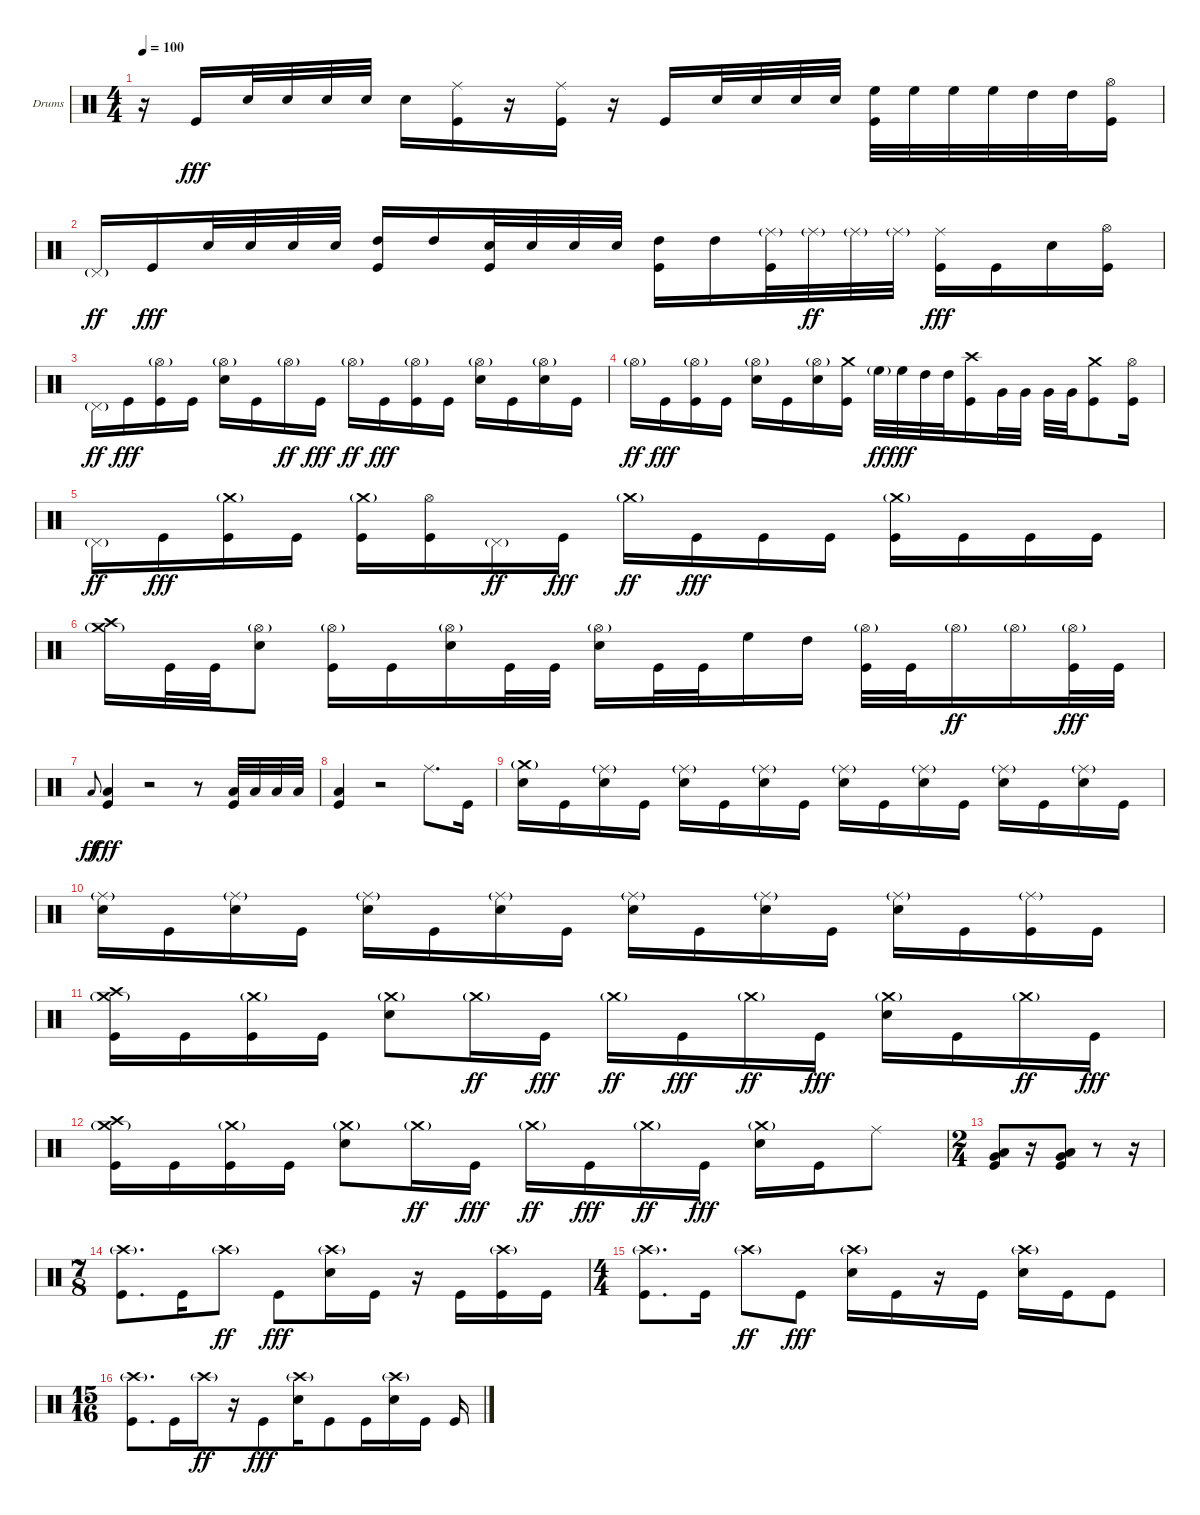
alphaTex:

\bracketExtendMode groupsimilarinstruments
\firstSystemTrackNameOrientation horizontal
\otherSystemsTrackNameOrientation horizontal
\track ("Drumkit" "Drums") {instrument percussion}
\staff {score}
\articulation defaults
\ts (4 4)
\tempo 100
\clef neutral
\ks c
r.16{dy fff} "Kick (hit)".16 "Snare (hit) 2".32 "Snare (hit) 2".32 "Snare (hit) 2".32 "Snare (hit) 2".32 "Snare (hit) 2".16 ("Ride (middle)" "Kick (hit)").16 r.16 ("Ride (middle)" "Kick (hit)").16 r.16 "Kick (hit)".16 "Snare (hit) 2".32 "Snare (hit) 2".32 "Snare (hit) 2".32 "Snare (hit) 2".32 ("High Floor Tom (hit)" "Kick (hit)").32 "High Floor Tom (hit)".32 "High Floor Tom (hit)".32 "High Floor Tom (hit)".32 "High Tom (hit)".32 "High Tom (hit)".32 ("Hi-Hat (open)" "Kick (hit)").16 |
"Pedal Hi-Hat (hit)"{g}.16{dy ff} "Kick (hit)".16{dy fff} "Snare (hit) 2".32 "Snare (hit) 2".32 "Snare (hit) 2".32 "Snare (hit) 2".32 ("High Tom (hit)" "Kick (hit)").16 "High Tom (hit)".16 ("Snare (hit) 2" "Kick (hit)").32 "Snare (hit) 2".32 "Snare (hit) 2".32 "Snare (hit) 2".32 ("High Tom (hit)" "Kick (hit)").16 "High Tom (hit)".16 ("Ride (middle)"{g} "Kick (hit)").32 "Ride (middle)"{g}.32{dy ff} "Ride (middle)"{g}.32 "Ride (middle)"{g}.32 ("Ride (middle)" "Kick (hit)").16{dy fff} "Kick (hit)".16 "Snare (hit) 2".16 ("Hi-Hat (open)" "Kick (hit)").16 |
"Pedal Hi-Hat (hit)"{g}.16{dy ff} "Kick (hit)".16{dy fff} ("Hi-Hat (open)"{g} "Kick (hit)").16 "Kick (hit)".16 ("Hi-Hat (open)"{g} "Snare (hit) 2").16 "Kick (hit)".16 "Hi-Hat (open)"{g}.16{dy ff} "Kick (hit)".16{dy fff} "Hi-Hat (open)"{g}.16{dy ff} "Kick (hit)".16{dy fff} ("Hi-Hat (open)"{g} "Kick (hit)").16 "Kick (hit)".16 ("Hi-Hat (open)"{g} "Snare (hit) 2").16 "Kick (hit)".16 ("Hi-Hat (open)"{g} "Snare (hit) 2").16 "Kick (hit)".16 |
"Hi-Hat (open)"{g}.16{dy ff} "Kick (hit)".16{dy fff} ("Hi-Hat (open)"{g} "Kick (hit)").16 "Kick (hit)".16 ("Hi-Hat (open)"{g} "Snare (hit) 2").16 "Kick (hit)".16 ("Hi-Hat (open)"{g} "Snare (hit) 2").16 ("Crash medium (hit)" "Kick (hit)").16 "High Floor Tom (hit)"{g}.32{dy ff} "High Floor Tom (hit)".32{dy fff} "High Tom (hit)".32 "High Tom (hit)".32 ("Crash high (hit)" "Kick (hit)").16 "Very Low Tom (hit)".32 "Very Low Tom (hit)".32 "Very Low Tom (hit)".32 "Very Low Tom (hit)".32 ("Crash medium (hit)" "Kick (hit)").8 ("Hi-Hat (open)" "Kick (hit)").16 |
"Pedal Hi-Hat (hit)"{g}.16{dy ff} "Kick (hit)".16{dy fff} ("Crash medium (hit)"{g} "Kick (hit)").16 "Kick (hit)".16 ("Crash medium (hit)"{g} "Kick (hit)").16 ("Hi-Hat (open)" "Kick (hit)").16 "Pedal Hi-Hat (hit)"{g}.16{dy ff} "Kick (hit)".16{dy fff} "Crash medium (hit)"{g}.16{dy ff} "Kick (hit)".16{dy fff} "Kick (hit)".16 "Kick (hit)".16 ("Crash medium (hit)"{g} "Kick (hit)").16 "Kick (hit)".16 "Kick (hit)".16 "Kick (hit)".16 |
("Crash medium (hit)"{g} "Crash high (hit)").16 "Kick (hit)".32 "Kick (hit)".32 ("Hi-Hat (open)"{g} "Snare (hit) 2").8 ("Hi-Hat (open)"{g} "Kick (hit)").16 "Kick (hit)".16 ("Hi-Hat (open)"{g} "Snare (hit) 2").16 "Kick (hit)".32 "Kick (hit)".32 ("Hi-Hat (open)"{g} "Snare (hit) 2").16 "Kick (hit)".32 "Kick (hit)".32 "High Floor Tom (hit)".16 "High Tom (hit)".16 ("Hi-Hat (open)"{g} "Kick (hit)").32 "Kick (hit)".32 "Hi-Hat (open)"{g}.16{dy ff} "Hi-Hat (open)"{g}.16 ("Hi-Hat (open)"{g} "Kick (hit)").32{dy fff} "Kick (hit)".32 |
"Low Tom (hit)".8{gr onbeat dy ff} ("Low Tom (hit)" "Kick (hit)").4{dy fff} r.2 r.8 ("Low Tom (hit)" "Kick (hit)").32 "Low Tom (hit)".32 "Low Tom (hit)".32 "Low Tom (hit)".32 |
("Low Tom (hit)" "Kick (hit)").4 r.2 "Ride (middle)".8{d} "Kick (hit)".16 |
("Crash medium (hit)"{g} "Snare (hit) 2").16 "Kick (hit)".16 ("Ride (middle)"{g} "Snare (hit) 2").16 "Kick (hit)".16 ("Ride (middle)"{g} "Snare (hit) 2").16 "Kick (hit)".16 ("Ride (middle)"{g} "Snare (hit) 2").16 "Kick (hit)".16 ("Ride (middle)"{g} "Snare (hit) 2").16 "Kick (hit)".16 ("Ride (middle)"{g} "Snare (hit) 2").16 "Kick (hit)".16 ("Ride (middle)"{g} "Snare (hit) 2").16 "Kick (hit)".16 ("Ride (middle)"{g} "Snare (hit) 2").16 "Kick (hit)".16 |
("Ride (middle)"{g} "Snare (hit) 2").16 "Kick (hit)".16 ("Ride (middle)"{g} "Snare (hit) 2").16 "Kick (hit)".16 ("Ride (middle)"{g} "Snare (hit) 2").16 "Kick (hit)".16 ("Ride (middle)"{g} "Snare (hit) 2").16 "Kick (hit)".16 ("Ride (middle)"{g} "Snare (hit) 2").16 "Kick (hit)".16 ("Ride (middle)"{g} "Snare (hit) 2").16 "Kick (hit)".16 ("Ride (middle)"{g} "Snare (hit) 2").16 "Kick (hit)".16 ("Ride (middle)"{g} "Kick (hit)").16 "Kick (hit)".16 |
("Crash medium (hit)"{g} "Crash high (hit)" "Kick (hit)").16 "Kick (hit)".16 ("Crash medium (hit)"{g} "Kick (hit)").16 "Kick (hit)".16 ("Crash medium (hit)"{g} "Snare (hit) 2").8 "Crash medium (hit)"{g}.16{dy ff} "Kick (hit)".16{dy fff} "Crash medium (hit)"{g}.16{dy ff} "Kick (hit)".16{dy fff} "Crash medium (hit)"{g}.16{dy ff} "Kick (hit)".16{dy fff} ("Crash medium (hit)"{g} "Snare (hit) 2").16 "Kick (hit)".16 "Crash medium (hit)"{g}.16{dy ff} "Kick (hit)".16{dy fff} |
("Crash medium (hit)"{g} "Crash high (hit)" "Kick (hit)").16 "Kick (hit)".16 ("Crash medium (hit)"{g} "Kick (hit)").16 "Kick (hit)".16 ("Crash medium (hit)"{g} "Snare (hit) 2").8 "Crash medium (hit)"{g}.16{dy ff} "Kick (hit)".16{dy fff} "Crash medium (hit)"{g}.16{dy ff} "Kick (hit)".16{dy fff} "Crash medium (hit)"{g}.16{dy ff} "Kick (hit)".16{dy fff} ("Crash medium (hit)"{g} "Snare (hit) 2").16 "Kick (hit)".16 "Ride (middle)".8 |
\ts (2 4)
\beaming (8 2 2)
("Low Tom (hit)" "Very Low Tom (hit)" "Kick (hit)").8 r.16 ("Low Tom (hit)" "Very Low Tom (hit)" "Kick (hit)").8 r.8 r.16 |
\ts (7 8)
\beaming (8 3 2 2)
("Crash high (hit)"{g} "Kick (hit)").8{d} "Kick (hit)".16 "Crash high (hit)"{g}.8{dy ff} "Kick (hit)".8{dy fff} ("Crash high (hit)"{g} "Snare (hit) 2").16 "Kick (hit)".16 r.16 "Kick (hit)".16 ("Crash high (hit)"{g} "Kick (hit)").16 "Kick (hit)".16 |
\ts (4 4)
\beaming (8 2 2 2 2)
("Crash high (hit)"{g} "Kick (hit)").8{d} "Kick (hit)".16 "Crash high (hit)"{g}.8{dy ff} "Kick (hit)".8{dy fff} ("Crash high (hit)"{g} "Snare (hit) 2").16 "Kick (hit)".16 r.16 "Kick (hit)".16 ("Crash high (hit)"{g} "Snare (hit) 2").16 "Kick (hit)".16 "Kick (hit)".8 |
\ts (15 16)
\beaming (8 7)
("Crash high (hit)"{g} "Kick (hit)").8{d} "Kick (hit)".16 "Crash high (hit)"{g}.16{dy ff} r.16 "Kick (hit)".8{dy fff} ("Crash high (hit)"{g} "Snare (hit) 2").16 "Kick (hit)".8 "Kick (hit)".16 ("Crash high (hit)"{g} "Snare (hit) 2").16 "Kick (hit)".16 "Kick (hit)".16
